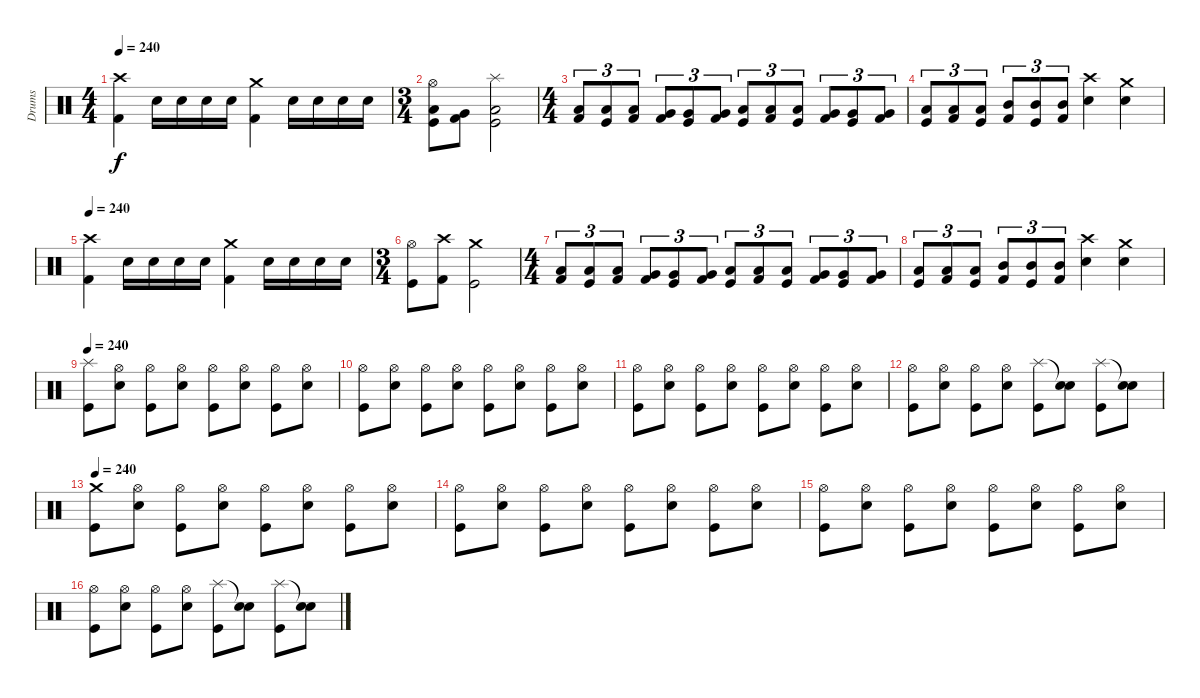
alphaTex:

\track ("Drums" "Drums") {instrument percussion}
\staff {score}
\articulation defaults
\ts (4 4)
\tempo 240
\clef neutral
\ks c
("Crash high (hit)" "Kick (hit) 2").4{dy f} "Electric Snare (hit)".16 "Electric Snare (hit)".16 "Electric Snare (hit)".16 "Electric Snare (hit)".16 ("Crash medium (hit)" "Kick (hit) 2").4 "Electric Snare (hit)".16 "Electric Snare (hit)".16 "Electric Snare (hit)".16 "Electric Snare (hit)".16 |
\ts (3 4)
("Hi-Hat (open)" "Low Floor Tom (hit)" "Kick (hit)").8 ("Very Low Tom (hit)" "Kick (hit) 2").8 ("Splash (hit)" "Low Floor Tom (hit)" "Kick (hit)").2 |
\ts (4 4)
("Low Floor Tom (hit)" "Kick (hit) 2").8{tu (3 2)} ("Low Floor Tom (hit)" "Kick (hit)").8{tu (3 2)} ("Low Floor Tom (hit)" "Kick (hit) 2").8{tu (3 2)} ("Very Low Tom (hit)" "Kick (hit) 2").8{tu (3 2)} ("Very Low Tom (hit)" "Kick (hit)").8{tu (3 2)} ("Very Low Tom (hit)" "Kick (hit) 2").8{tu (3 2)} ("Low Floor Tom (hit)" "Kick (hit)").8{tu (3 2)} ("Low Floor Tom (hit)" "Kick (hit) 2").8{tu (3 2)} ("Low Floor Tom (hit)" "Kick (hit)").8{tu (3 2)} ("Very Low Tom (hit)" "Kick (hit) 2").8{tu (3 2)} ("Very Low Tom (hit)" "Kick (hit)").8{tu (3 2)} ("Very Low Tom (hit)" "Kick (hit) 2").8{tu (3 2)} |
("Low Tom (hit)" "Kick (hit)").8{tu (3 2)} ("Low Tom (hit)" "Kick (hit) 2").8{tu (3 2)} ("Low Tom (hit)" "Kick (hit)").8{tu (3 2)} ("Mid Tom (hit)" "Kick (hit) 2").8{tu (3 2)} ("Mid Tom (hit)" "Kick (hit)").8{tu (3 2)} ("Mid Tom (hit)" "Kick (hit) 2").8{tu (3 2)} ("Crash high (hit)" "Electric Snare (hit)").4 ("Crash medium (hit)" "Electric Snare (hit)").4 |
\tempo 240
("Crash high (hit)" "Kick (hit) 2").4 "Electric Snare (hit)".16 "Electric Snare (hit)".16 "Electric Snare (hit)".16 "Electric Snare (hit)".16 ("Crash medium (hit)" "Kick (hit) 2").4 "Electric Snare (hit)".16 "Electric Snare (hit)".16 "Electric Snare (hit)".16 "Electric Snare (hit)".16 |
\ts (3 4)
("Hi-Hat (open)" "Kick (hit)").8 ("Crash high (hit)" "Kick (hit) 2").8 ("Crash medium (hit)" "Kick (hit)").2 |
\ts (4 4)
("Low Floor Tom (hit)" "Kick (hit) 2").8{tu (3 2)} ("Low Floor Tom (hit)" "Kick (hit)").8{tu (3 2)} ("Low Floor Tom (hit)" "Kick (hit) 2").8{tu (3 2)} ("Very Low Tom (hit)" "Kick (hit) 2").8{tu (3 2)} ("Very Low Tom (hit)" "Kick (hit)").8{tu (3 2)} ("Very Low Tom (hit)" "Kick (hit) 2").8{tu (3 2)} ("Low Floor Tom (hit)" "Kick (hit)").8{tu (3 2)} ("Low Floor Tom (hit)" "Kick (hit) 2").8{tu (3 2)} ("Low Floor Tom (hit)" "Kick (hit)").8{tu (3 2)} ("Very Low Tom (hit)" "Kick (hit) 2").8{tu (3 2)} ("Very Low Tom (hit)" "Kick (hit)").8{tu (3 2)} ("Very Low Tom (hit)" "Kick (hit) 2").8{tu (3 2)} |
("Low Tom (hit)" "Kick (hit)").8{tu (3 2)} ("Low Tom (hit)" "Kick (hit) 2").8{tu (3 2)} ("Low Tom (hit)" "Kick (hit)").8{tu (3 2)} ("Mid Tom (hit)" "Kick (hit) 2").8{tu (3 2)} ("Mid Tom (hit)" "Kick (hit)").8{tu (3 2)} ("Mid Tom (hit)" "Kick (hit) 2").8{tu (3 2)} ("Crash high (hit)" "Electric Snare (hit)").4 ("Crash medium (hit)" "Electric Snare (hit)").4 |
\tempo 240
("Splash (hit)" "Kick (hit)").8 ("Hi-Hat (open)" "Electric Snare (hit)").8 ("Hi-Hat (open)" "Kick (hit)").8 ("Hi-Hat (open)" "Electric Snare (hit)").8 ("Hi-Hat (open)" "Kick (hit)").8 ("Hi-Hat (open)" "Electric Snare (hit)").8 ("Hi-Hat (open)" "Kick (hit)").8 ("Hi-Hat (open)" "Electric Snare (hit)").8 |
("Hi-Hat (open)" "Kick (hit)").8 ("Hi-Hat (open)" "Electric Snare (hit)").8 ("Hi-Hat (open)" "Kick (hit)").8 ("Hi-Hat (open)" "Electric Snare (hit)").8 ("Hi-Hat (open)" "Kick (hit)").8 ("Hi-Hat (open)" "Electric Snare (hit)").8 ("Hi-Hat (open)" "Kick (hit)").8 ("Hi-Hat (open)" "Electric Snare (hit)").8 |
("Hi-Hat (open)" "Kick (hit)").8 ("Hi-Hat (open)" "Electric Snare (hit)").8 ("Hi-Hat (open)" "Kick (hit)").8 ("Hi-Hat (open)" "Electric Snare (hit)").8 ("Hi-Hat (open)" "Kick (hit)").8 ("Hi-Hat (open)" "Electric Snare (hit)").8 ("Hi-Hat (open)" "Kick (hit)").8 ("Hi-Hat (open)" "Electric Snare (hit)").8 |
("Hi-Hat (open)" "Kick (hit)").8 ("Hi-Hat (open)" "Electric Snare (hit)").8 ("Hi-Hat (open)" "Kick (hit)").8 ("Hi-Hat (open)" "Electric Snare (hit)").8 ("Splash (hit)" "Kick (hit)").8 ("Snare (hit)"{t} "Electric Snare (hit)").8 ("Splash (hit)" "Kick (hit)").8 ("Snare (hit)"{t} "Electric Snare (hit)").8 |
\tempo 240
("Crash medium (hit)" "Kick (hit)").8 ("Hi-Hat (open)" "Electric Snare (hit)").8 ("Hi-Hat (open)" "Kick (hit)").8 ("Hi-Hat (open)" "Electric Snare (hit)").8 ("Hi-Hat (open)" "Kick (hit)").8 ("Hi-Hat (open)" "Electric Snare (hit)").8 ("Hi-Hat (open)" "Kick (hit)").8 ("Hi-Hat (open)" "Electric Snare (hit)").8 |
("Hi-Hat (open)" "Kick (hit)").8 ("Hi-Hat (open)" "Electric Snare (hit)").8 ("Hi-Hat (open)" "Kick (hit)").8 ("Hi-Hat (open)" "Electric Snare (hit)").8 ("Hi-Hat (open)" "Kick (hit)").8 ("Hi-Hat (open)" "Electric Snare (hit)").8 ("Hi-Hat (open)" "Kick (hit)").8 ("Hi-Hat (open)" "Electric Snare (hit)").8 |
("Hi-Hat (open)" "Kick (hit)").8 ("Hi-Hat (open)" "Electric Snare (hit)").8 ("Hi-Hat (open)" "Kick (hit)").8 ("Hi-Hat (open)" "Electric Snare (hit)").8 ("Hi-Hat (open)" "Kick (hit)").8 ("Hi-Hat (open)" "Electric Snare (hit)").8 ("Hi-Hat (open)" "Kick (hit)").8 ("Hi-Hat (open)" "Electric Snare (hit)").8 |
("Hi-Hat (open)" "Kick (hit)").8 ("Hi-Hat (open)" "Electric Snare (hit)").8 ("Hi-Hat (open)" "Kick (hit)").8 ("Hi-Hat (open)" "Electric Snare (hit)").8 ("Splash (hit)" "Kick (hit)").8 ("Snare (hit)"{t} "Electric Snare (hit)").8 ("Splash (hit)" "Kick (hit)").8 ("Snare (hit)"{t} "Electric Snare (hit)").8
